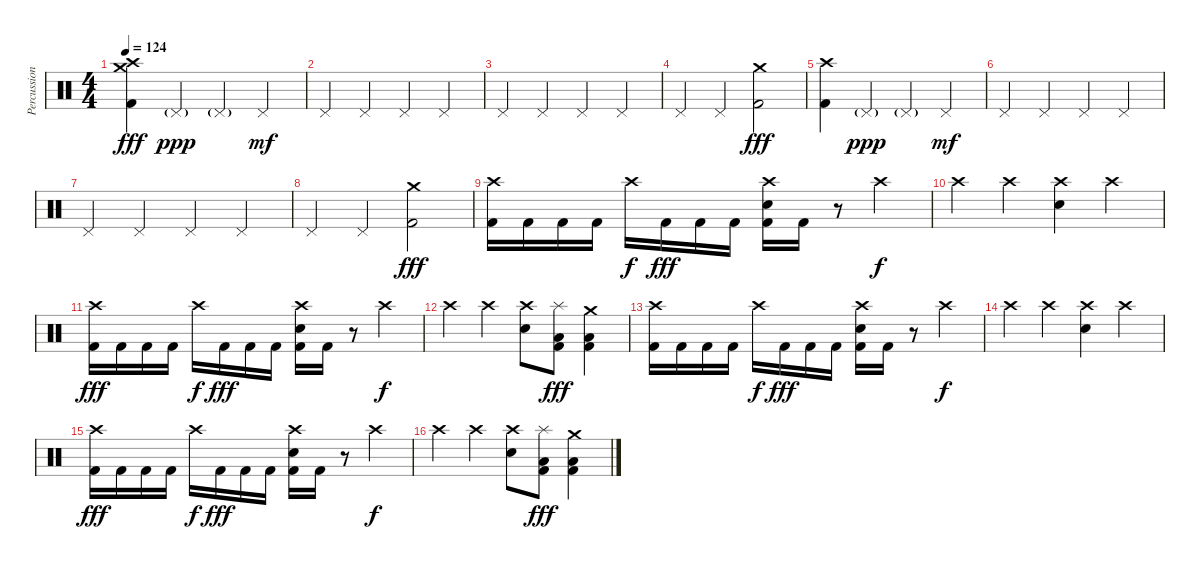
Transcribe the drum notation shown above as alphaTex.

\track ("Percussion" "Percussion") {instrument percussion}
\staff {score}
\articulation defaults
\ts (4 4)
\tempo 124
\clef neutral
\ks c
("Crash medium (hit)" "Crash high (hit)" "Kick (hit) 2").4{dy fff} "Pedal Hi-Hat (hit)"{g}.4{dy ppp} "Pedal Hi-Hat (hit)"{g}.4 "Pedal Hi-Hat (hit)".4{dy mf} |
"Pedal Hi-Hat (hit)".4 "Pedal Hi-Hat (hit)".4 "Pedal Hi-Hat (hit)".4 "Pedal Hi-Hat (hit)".4 |
"Pedal Hi-Hat (hit)".4 "Pedal Hi-Hat (hit)".4 "Pedal Hi-Hat (hit)".4 "Pedal Hi-Hat (hit)".4 |
"Pedal Hi-Hat (hit)".4 "Pedal Hi-Hat (hit)".4 ("Crash medium (hit)" "Kick (hit) 2").2{dy fff} |
("Crash high (hit)" "Kick (hit) 2").4 "Pedal Hi-Hat (hit)"{g}.4{dy ppp} "Pedal Hi-Hat (hit)"{g}.4 "Pedal Hi-Hat (hit)".4{dy mf} |
"Pedal Hi-Hat (hit)".4 "Pedal Hi-Hat (hit)".4 "Pedal Hi-Hat (hit)".4 "Pedal Hi-Hat (hit)".4 |
"Pedal Hi-Hat (hit)".4 "Pedal Hi-Hat (hit)".4 "Pedal Hi-Hat (hit)".4 "Pedal Hi-Hat (hit)".4 |
"Pedal Hi-Hat (hit)".4 "Pedal Hi-Hat (hit)".4 ("Crash medium (hit)" "Kick (hit) 2").2{dy fff} |
("Crash high (hit)" "Kick (hit) 2").16 "Kick (hit) 2".16 "Kick (hit) 2".16 "Kick (hit) 2".16 "Crash high (hit)".16{dy f} "Kick (hit) 2".16{dy fff} "Kick (hit) 2".16 "Kick (hit) 2".16 ("Crash high (hit)" "Snare (hit) 2" "Kick (hit) 2").16 "Kick (hit) 2".16 r.8 "Crash high (hit)".4{dy f} |
"Crash high (hit)".4 "Crash high (hit)".4 ("Crash high (hit)" "Snare (hit) 2").4 "Crash high (hit)".4 |
("Crash high (hit)" "Kick (hit) 2").16{dy fff} "Kick (hit) 2".16 "Kick (hit) 2".16 "Kick (hit) 2".16 "Crash high (hit)".16{dy f} "Kick (hit) 2".16{dy fff} "Kick (hit) 2".16 "Kick (hit) 2".16 ("Crash high (hit)" "Snare (hit) 2" "Kick (hit) 2").16 "Kick (hit) 2".16 r.8 "Crash high (hit)".4{dy f} |
"Crash high (hit)".4 "Crash high (hit)".4 ("Crash high (hit)" "Snare (hit) 2").8 ("Splash (hit)" "Low Tom (hit)" "Kick (hit) 2").8{dy fff} ("Crash medium (hit)" "Low Floor Tom (hit)" "Kick (hit) 2").4 |
("Crash high (hit)" "Kick (hit) 2").16 "Kick (hit) 2".16 "Kick (hit) 2".16 "Kick (hit) 2".16 "Crash high (hit)".16{dy f} "Kick (hit) 2".16{dy fff} "Kick (hit) 2".16 "Kick (hit) 2".16 ("Crash high (hit)" "Snare (hit) 2" "Kick (hit) 2").16 "Kick (hit) 2".16 r.8 "Crash high (hit)".4{dy f} |
"Crash high (hit)".4 "Crash high (hit)".4 ("Crash high (hit)" "Snare (hit) 2").4 "Crash high (hit)".4 |
("Crash high (hit)" "Kick (hit) 2").16{dy fff} "Kick (hit) 2".16 "Kick (hit) 2".16 "Kick (hit) 2".16 "Crash high (hit)".16{dy f} "Kick (hit) 2".16{dy fff} "Kick (hit) 2".16 "Kick (hit) 2".16 ("Crash high (hit)" "Snare (hit) 2" "Kick (hit) 2").16 "Kick (hit) 2".16 r.8 "Crash high (hit)".4{dy f} |
"Crash high (hit)".4 "Crash high (hit)".4 ("Crash high (hit)" "Snare (hit) 2").8 ("Splash (hit)" "Low Tom (hit)" "Kick (hit) 2").8{dy fff} ("Crash medium (hit)" "Low Floor Tom (hit)" "Kick (hit) 2").4
